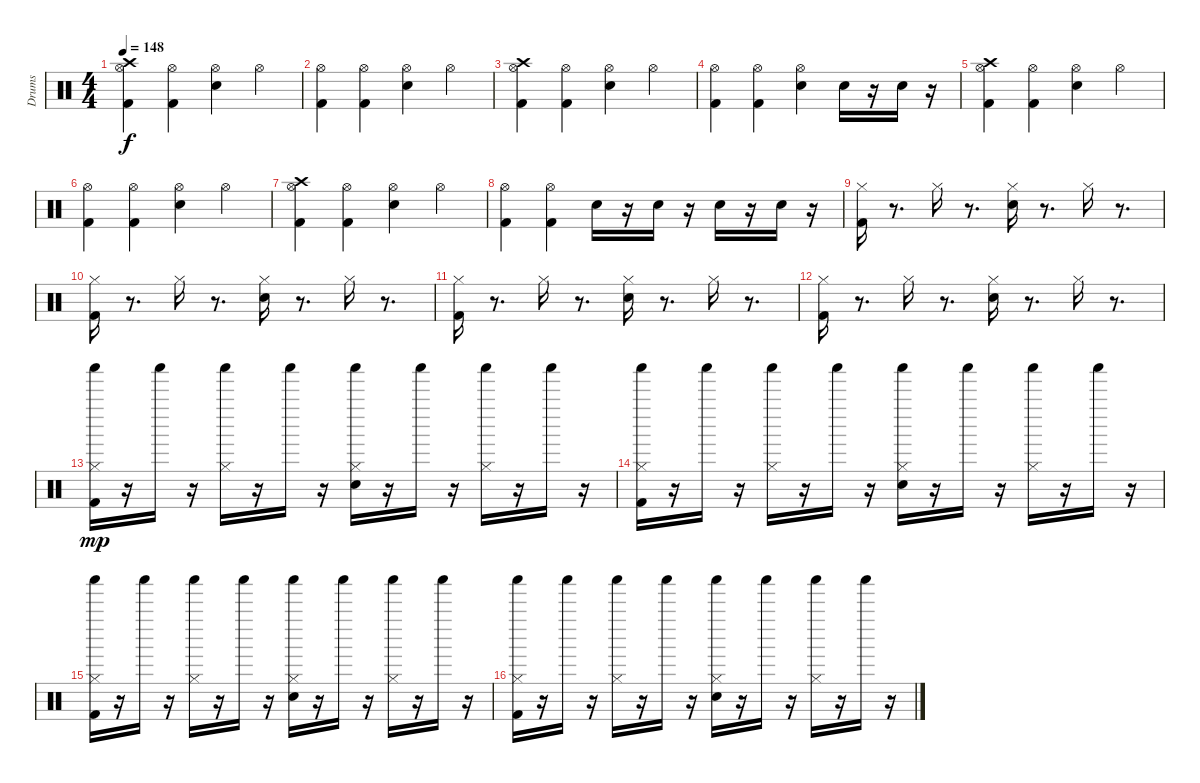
\track ("Drums" "Drums") {instrument percussion}
\staff {score}
\articulation defaults
\ts (4 4)
\tempo 148
\clef neutral
\ks c
("Hi-Hat (open)" "Kick (hit) 2" "Crash high (hit)").4{dy f} ("Kick (hit) 2" "Hi-Hat (open)").4 ("Hi-Hat (open)" "Snare (hit) 2").4 "Hi-Hat (open)".4 |
("Hi-Hat (open)" "Kick (hit) 2").4 ("Hi-Hat (open)" "Kick (hit) 2").4 ("Hi-Hat (open)" "Snare (hit) 2").4 "Hi-Hat (open)".4 |
("Crash high (hit)" "Hi-Hat (open)" "Kick (hit) 2").4 ("Hi-Hat (open)" "Kick (hit) 2").4 ("Hi-Hat (open)" "Snare (hit) 2").4 "Hi-Hat (open)".4 |
("Hi-Hat (open)" "Kick (hit) 2").4 ("Hi-Hat (open)" "Kick (hit) 2").4 ("Hi-Hat (open)" "Snare (hit) 2").4 "Snare (hit) 2".16 r.16 "Snare (hit) 2".16 r.16 |
("Hi-Hat (open)" "Kick (hit) 2" "Crash high (hit)").4 ("Kick (hit) 2" "Hi-Hat (open)").4 ("Hi-Hat (open)" "Snare (hit) 2").4 "Hi-Hat (open)".4 |
("Hi-Hat (open)" "Kick (hit) 2").4 ("Hi-Hat (open)" "Kick (hit) 2").4 ("Hi-Hat (open)" "Snare (hit) 2").4 "Hi-Hat (open)".4 |
("Crash high (hit)" "Hi-Hat (open)" "Kick (hit) 2").4 ("Hi-Hat (open)" "Kick (hit) 2").4 ("Hi-Hat (open)" "Snare (hit) 2").4 "Hi-Hat (open)".4 |
("Hi-Hat (open)" "Kick (hit) 2").4 ("Hi-Hat (open)" "Kick (hit) 2").4 "Snare (hit) 2".16 r.16 "Snare (hit) 2".16 r.16 "Snare (hit) 2".16 r.16 "Snare (hit) 2".16 r.16 |
("Hi-Hat (closed)" "Kick (hit) 2").16 r.8{d} "Hi-Hat (closed)".16 r.8{d} ("Hi-Hat (closed)" "Snare (hit) 2").16 r.8{d} "Hi-Hat (closed)".16 r.8{d} |
("Hi-Hat (closed)" "Kick (hit) 2").16 r.8{d} "Hi-Hat (closed)".16 r.8{d} ("Snare (hit) 2" "Hi-Hat (closed)").16 r.8{d} "Hi-Hat (closed)".16 r.8{d} |
("Hi-Hat (closed)" "Kick (hit) 2").16 r.8{d} "Hi-Hat (closed)".16 r.8{d} ("Hi-Hat (closed)" "Snare (hit) 2").16 r.8{d} "Hi-Hat (closed)".16 r.8{d} |
("Hi-Hat (closed)" "Kick (hit) 2").16 r.8{d} "Hi-Hat (closed)".16 r.8{d} ("Hi-Hat (closed)" "Snare (hit) 2").16 r.8{d} "Hi-Hat (closed)".16 r.8{d} |
("Shaker (hit)" "Hi-Hat (closed)" "Kick (hit) 2").16{dy mp} r.16 "Shaker (hit)".16 r.16 ("Shaker (hit)" "Hi-Hat (closed)").16 r.16 "Shaker (hit)".16 r.16 ("Shaker (hit)" "Hi-Hat (closed)" "Snare (hit) 2").16 r.16 "Shaker (hit)".16 r.16 ("Shaker (hit)" "Hi-Hat (closed)").16 r.16 "Shaker (hit)".16 r.16 |
("Hi-Hat (closed)" "Kick (hit) 2" "Shaker (hit)").16 r.16 "Shaker (hit)".16 r.16 ("Hi-Hat (closed)" "Shaker (hit)").16 r.16 "Shaker (hit)".16 r.16 ("Snare (hit) 2" "Hi-Hat (closed)" "Shaker (hit)").16 r.16 "Shaker (hit)".16 r.16 ("Hi-Hat (closed)" "Shaker (hit)").16 r.16 "Shaker (hit)".16 r.16 |
("Hi-Hat (closed)" "Kick (hit) 2" "Shaker (hit)").16 r.16 "Shaker (hit)".16 r.16 ("Hi-Hat (closed)" "Shaker (hit)").16 r.16 "Shaker (hit)".16 r.16 ("Hi-Hat (closed)" "Snare (hit) 2" "Shaker (hit)").16 r.16 "Shaker (hit)".16 r.16 ("Hi-Hat (closed)" "Shaker (hit)").16 r.16 "Shaker (hit)".16 r.16 |
("Hi-Hat (closed)" "Kick (hit) 2" "Shaker (hit)").16 r.16 "Shaker (hit)".16 r.16 ("Hi-Hat (closed)" "Shaker (hit)").16 r.16 "Shaker (hit)".16 r.16 ("Hi-Hat (closed)" "Snare (hit) 2" "Shaker (hit)").16 r.16 "Shaker (hit)".16 r.16 ("Hi-Hat (closed)" "Shaker (hit)").16 r.16 "Shaker (hit)".16 r.16
